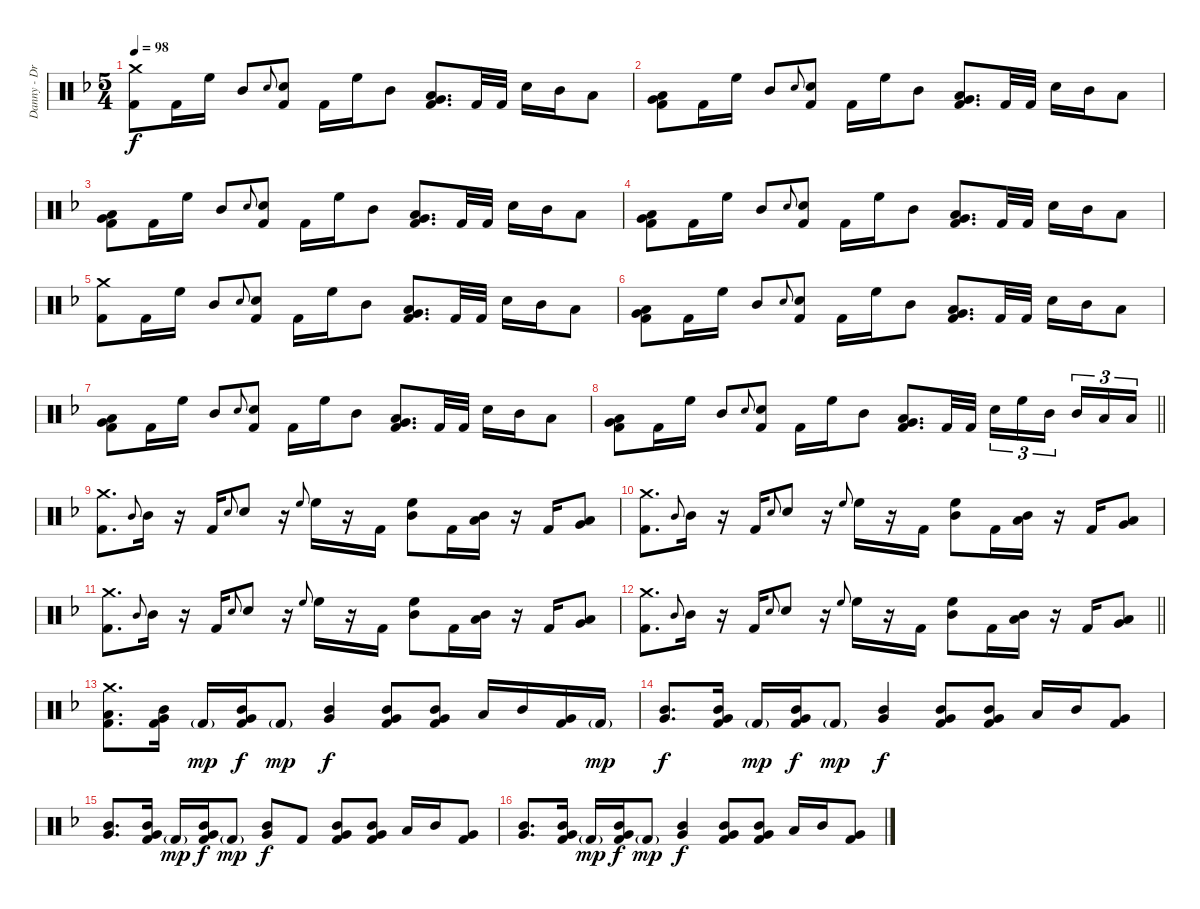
\track ("Danny - Drums" "Danny - Dr") {instrument percussion}
\staff {score}
\articulation defaults
\ts (5 4)
\tempo 98
\clef neutral
\ks dminor
("Crash medium (hit)" "Kick (hit) 2").8{dy f} "Kick (hit) 2".16 "High Floor Tom (hit)".16 "Mid Tom (hit)".8 "Electric Snare (hit)".8{gr onbeat} ("Electric Snare (hit)" "Kick (hit) 2").8 "Kick (hit) 2".16 "High Floor Tom (hit)".16 "Mid Tom (hit)".8 ("Low Tom (hit)" "Very Low Tom (hit)" "Kick (hit) 2").8{d} "Kick (hit) 2".32 "Kick (hit) 2".32 "Electric Snare (hit)".16 "Mid Tom (hit)".16 "Low Tom (hit)".8 |
("Low Tom (hit)" "Very Low Tom (hit)" "Kick (hit) 2").8 "Kick (hit) 2".16 "High Floor Tom (hit)".16 "Mid Tom (hit)".8 "Electric Snare (hit)".8{gr onbeat} ("Electric Snare (hit)" "Kick (hit) 2").8 "Kick (hit) 2".16 "High Floor Tom (hit)".16 "Mid Tom (hit)".8 ("Low Tom (hit)" "Very Low Tom (hit)" "Kick (hit) 2").8{d} "Kick (hit) 2".32 "Kick (hit) 2".32 "Electric Snare (hit)".16 "Mid Tom (hit)".16 "Low Tom (hit)".8 |
("Low Tom (hit)" "Very Low Tom (hit)" "Kick (hit) 2").8 "Kick (hit) 2".16 "High Floor Tom (hit)".16 "Mid Tom (hit)".8 "Electric Snare (hit)".8{gr onbeat} ("Electric Snare (hit)" "Kick (hit) 2").8 "Kick (hit) 2".16 "High Floor Tom (hit)".16 "Mid Tom (hit)".8 ("Low Tom (hit)" "Very Low Tom (hit)" "Kick (hit) 2").8{d} "Kick (hit) 2".32 "Kick (hit) 2".32 "Electric Snare (hit)".16 "Mid Tom (hit)".16 "Low Tom (hit)".8 |
("Low Tom (hit)" "Very Low Tom (hit)" "Kick (hit) 2").8 "Kick (hit) 2".16 "High Floor Tom (hit)".16 "Mid Tom (hit)".8 "Electric Snare (hit)".8{gr onbeat} ("Electric Snare (hit)" "Kick (hit) 2").8 "Kick (hit) 2".16 "High Floor Tom (hit)".16 "Mid Tom (hit)".8 ("Low Tom (hit)" "Very Low Tom (hit)" "Kick (hit) 2").8{d} "Kick (hit) 2".32 "Kick (hit) 2".32 "Electric Snare (hit)".16 "Mid Tom (hit)".16 "Low Tom (hit)".8 |
("Crash medium (hit)" "Kick (hit) 2").8 "Kick (hit) 2".16 "High Floor Tom (hit)".16 "Mid Tom (hit)".8 "Electric Snare (hit)".8{gr onbeat} ("Electric Snare (hit)" "Kick (hit) 2").8 "Kick (hit) 2".16 "High Floor Tom (hit)".16 "Mid Tom (hit)".8 ("Low Tom (hit)" "Very Low Tom (hit)" "Kick (hit) 2").8{d} "Kick (hit) 2".32 "Kick (hit) 2".32 "Electric Snare (hit)".16 "Mid Tom (hit)".16 "Low Tom (hit)".8 |
("Low Tom (hit)" "Very Low Tom (hit)" "Kick (hit) 2").8 "Kick (hit) 2".16 "High Floor Tom (hit)".16 "Mid Tom (hit)".8 "Electric Snare (hit)".8{gr onbeat} ("Electric Snare (hit)" "Kick (hit) 2").8 "Kick (hit) 2".16 "High Floor Tom (hit)".16 "Mid Tom (hit)".8 ("Low Tom (hit)" "Very Low Tom (hit)" "Kick (hit) 2").8{d} "Kick (hit) 2".32 "Kick (hit) 2".32 "Electric Snare (hit)".16 "Mid Tom (hit)".16 "Low Tom (hit)".8 |
("Low Tom (hit)" "Very Low Tom (hit)" "Kick (hit) 2").8 "Kick (hit) 2".16 "High Floor Tom (hit)".16 "Mid Tom (hit)".8 "Electric Snare (hit)".8{gr onbeat} ("Electric Snare (hit)" "Kick (hit) 2").8 "Kick (hit) 2".16 "High Floor Tom (hit)".16 "Mid Tom (hit)".8 ("Low Tom (hit)" "Very Low Tom (hit)" "Kick (hit) 2").8{d} "Kick (hit) 2".32 "Kick (hit) 2".32 "Electric Snare (hit)".16 "Mid Tom (hit)".16 "Low Tom (hit)".8 |
\barLineRight lightlight
("Low Tom (hit)" "Very Low Tom (hit)" "Kick (hit) 2").8 "Kick (hit) 2".16 "High Floor Tom (hit)".16 "Mid Tom (hit)".8 "Electric Snare (hit)".8{gr onbeat} ("Electric Snare (hit)" "Kick (hit) 2").8 "Kick (hit) 2".16 "High Floor Tom (hit)".16 "Mid Tom (hit)".8 ("Low Tom (hit)" "Very Low Tom (hit)" "Kick (hit) 2").8{d} "Kick (hit) 2".32 "Kick (hit) 2".32 "Electric Snare (hit)".16{tu (3 2)} "High Floor Tom (hit)".16{tu (3 2)} "Mid Tom (hit)".16{tu (3 2) beam splitsecondary} "Mid Tom (hit)".16{tu (3 2)} "Low Tom (hit)".16{tu (3 2)} "Low Tom (hit)".16{tu (3 2)} |
("Crash medium (hit)" "Kick (hit) 2").8{d} "Mid Tom (hit)".8{gr onbeat} "Mid Tom (hit)".16 r.16 "Kick (hit) 2".16 "Electric Snare (hit)".8{gr onbeat} "Electric Snare (hit)".8 r.16 "High Floor Tom (hit)".8{gr onbeat} "High Floor Tom (hit)".16 r.16 "Kick (hit) 2".16 ("High Floor Tom (hit)" "Mid Tom (hit)").8 "Kick (hit) 2".16 ("Mid Tom (hit)" "Low Tom (hit)").16 r.16 "Kick (hit) 2".16 ("Low Tom (hit)" "Very Low Tom (hit)").8 |
("Crash medium (hit)" "Kick (hit) 2").8{d} "Mid Tom (hit)".8{gr onbeat} "Mid Tom (hit)".16 r.16 "Kick (hit) 2".16 "Electric Snare (hit)".8{gr onbeat} "Electric Snare (hit)".8 r.16 "High Floor Tom (hit)".8{gr onbeat} "High Floor Tom (hit)".16 r.16 "Kick (hit) 2".16 ("High Floor Tom (hit)" "Mid Tom (hit)").8 "Kick (hit) 2".16 ("Mid Tom (hit)" "Low Tom (hit)").16 r.16 "Kick (hit) 2".16 ("Low Tom (hit)" "Very Low Tom (hit)").8 |
("Crash medium (hit)" "Kick (hit) 2").8{d} "Mid Tom (hit)".8{gr onbeat} "Mid Tom (hit)".16 r.16 "Kick (hit) 2".16 "Electric Snare (hit)".8{gr onbeat} "Electric Snare (hit)".8 r.16 "High Floor Tom (hit)".8{gr onbeat} "High Floor Tom (hit)".16 r.16 "Kick (hit) 2".16 ("High Floor Tom (hit)" "Mid Tom (hit)").8 "Kick (hit) 2".16 ("Mid Tom (hit)" "Low Tom (hit)").16 r.16 "Kick (hit) 2".16 ("Low Tom (hit)" "Very Low Tom (hit)").8 |
\barLineRight lightlight
("Crash medium (hit)" "Kick (hit) 2").8{d} "Mid Tom (hit)".8{gr onbeat} "Mid Tom (hit)".16 r.16 "Kick (hit) 2".16 "Electric Snare (hit)".8{gr onbeat} "Electric Snare (hit)".8 r.16 "High Floor Tom (hit)".8{gr onbeat} "High Floor Tom (hit)".16 r.16 "Kick (hit) 2".16 ("High Floor Tom (hit)" "Mid Tom (hit)").8 "Kick (hit) 2".16 ("Mid Tom (hit)" "Low Tom (hit)").16 r.16 "Kick (hit) 2".16 ("Low Tom (hit)" "Very Low Tom (hit)").8 |
("Crash medium (hit)" "Low Tom (hit)" "Kick (hit) 2").8{d volume 13} ("Mid Tom (hit)" "Very Low Tom (hit)" "Kick (hit) 2").16 "Kick (hit) 2"{g}.16{dy mp} ("Mid Tom (hit)" "Very Low Tom (hit)" "Kick (hit) 2").16{dy f} "Kick (hit) 2"{g}.8{dy mp} ("Mid Tom (hit)" "Very Low Tom (hit)").4{dy f} ("Mid Tom (hit)" "Very Low Tom (hit)" "Kick (hit) 2").8 ("Mid Tom (hit)" "Very Low Tom (hit)" "Kick (hit) 2").8 "Low Tom (hit)".16 "Mid Tom (hit)".16 ("Very Low Tom (hit)" "Kick (hit) 2").16 "Kick (hit) 2"{g}.16{dy mp} |
("Mid Tom (hit)" "Very Low Tom (hit)").8{d dy f} ("Mid Tom (hit)" "Very Low Tom (hit)" "Kick (hit) 2").16 "Kick (hit) 2"{g}.16{dy mp} ("Mid Tom (hit)" "Very Low Tom (hit)" "Kick (hit) 2").16{dy f} "Kick (hit) 2"{g}.8{dy mp} ("Mid Tom (hit)" "Very Low Tom (hit)").4{dy f} ("Mid Tom (hit)" "Very Low Tom (hit)" "Kick (hit) 2").8 ("Mid Tom (hit)" "Very Low Tom (hit)" "Kick (hit) 2").8 "Low Tom (hit)".16 "Mid Tom (hit)".16 ("Very Low Tom (hit)" "Kick (hit) 2").8 |
("Mid Tom (hit)" "Very Low Tom (hit)").8{d} ("Mid Tom (hit)" "Very Low Tom (hit)" "Kick (hit) 2").16 "Kick (hit) 2"{g}.16{dy mp} ("Mid Tom (hit)" "Very Low Tom (hit)" "Kick (hit) 2").16{dy f} "Kick (hit) 2"{g}.8{dy mp} ("Mid Tom (hit)" "Very Low Tom (hit)").8{dy f} "Kick (hit) 2".8 ("Mid Tom (hit)" "Very Low Tom (hit)" "Kick (hit) 2").8 ("Mid Tom (hit)" "Very Low Tom (hit)" "Kick (hit) 2").8 "Low Tom (hit)".16 "Mid Tom (hit)".16 ("Very Low Tom (hit)" "Kick (hit) 2").8 |
("Mid Tom (hit)" "Very Low Tom (hit)").8{d} ("Mid Tom (hit)" "Very Low Tom (hit)" "Kick (hit) 2").16 "Kick (hit) 2"{g}.16{dy mp} ("Mid Tom (hit)" "Very Low Tom (hit)" "Kick (hit) 2").16{dy f} "Kick (hit) 2"{g}.8{dy mp} ("Mid Tom (hit)" "Very Low Tom (hit)").4{dy f} ("Mid Tom (hit)" "Very Low Tom (hit)" "Kick (hit) 2").8 ("Mid Tom (hit)" "Very Low Tom (hit)" "Kick (hit) 2").8 "Low Tom (hit)".16 "Mid Tom (hit)".16 ("Very Low Tom (hit)" "Kick (hit) 2").8
